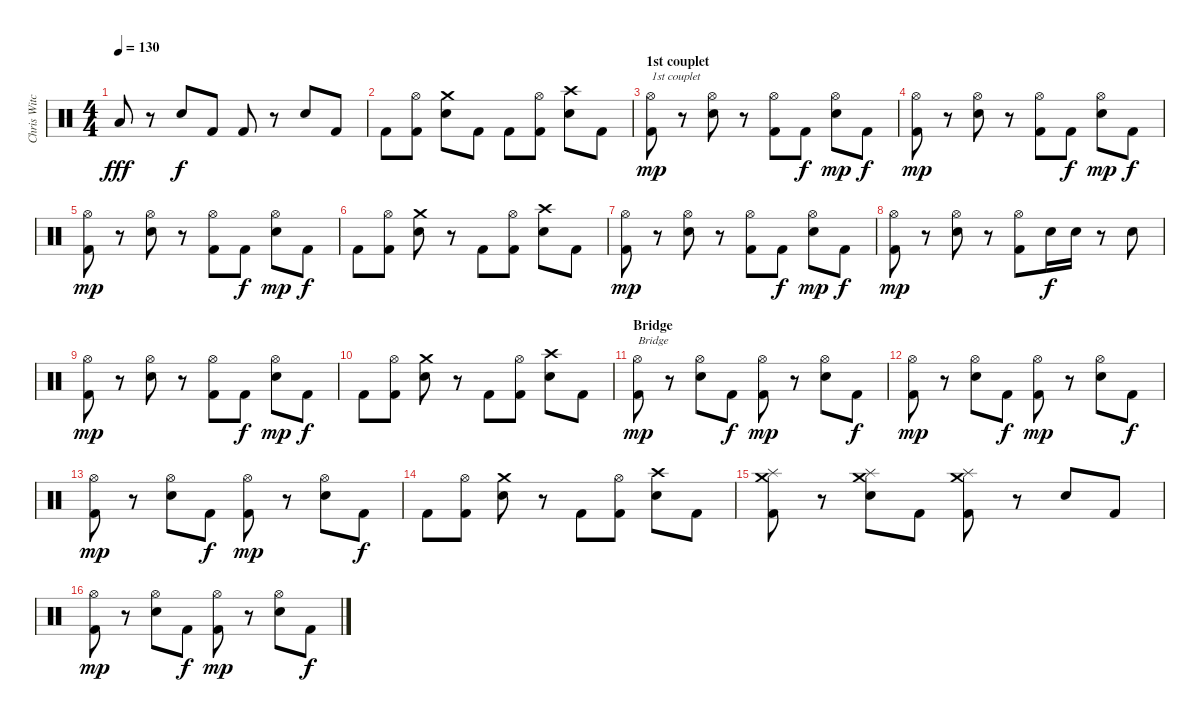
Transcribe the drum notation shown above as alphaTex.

\track ("Chris Witchhunter" "Chris Witc") {instrument percussion}
\staff {score}
\articulation defaults
\ts (4 4)
\tempo 130
\clef neutral
\ks c "Low Tom (hit)".8{dy fff}
r.8 "Electric Snare (hit)".8{dy f} "Kick (hit) 2".8 "Kick (hit) 2".8 r.8 "Electric Snare (hit)".8 "Kick (hit) 2".8 |
"Kick (hit) 2".8 ("Hi-Hat (open)" "Kick (hit) 2").8 ("Crash medium (hit)" "Electric Snare (hit)").8 "Kick (hit) 2".8 "Kick (hit) 2".8 ("Hi-Hat (open)" "Kick (hit) 2").8 ("Crash high (hit)" "Electric Snare (hit)").8 "Kick (hit) 2".8 |
\section ("" "1st couplet")
("Hi-Hat (open)" "Kick (hit) 2").8{txt "1st couplet" dy mp} r.8 ("Hi-Hat (open)" "Electric Snare (hit)").8 r.8 ("Hi-Hat (open)" "Kick (hit) 2").8 "Kick (hit) 2".8{dy f} ("Hi-Hat (open)" "Electric Snare (hit)").8{dy mp} "Kick (hit) 2".8{dy f} |
("Hi-Hat (open)" "Kick (hit) 2").8{dy mp} r.8 ("Hi-Hat (open)" "Electric Snare (hit)").8 r.8 ("Hi-Hat (open)" "Kick (hit) 2").8 "Kick (hit) 2".8{dy f} ("Hi-Hat (open)" "Electric Snare (hit)").8{dy mp} "Kick (hit) 2".8{dy f} |
("Hi-Hat (open)" "Kick (hit) 2").8{dy mp} r.8 ("Hi-Hat (open)" "Electric Snare (hit)").8 r.8 ("Hi-Hat (open)" "Kick (hit) 2").8 "Kick (hit) 2".8{dy f} ("Hi-Hat (open)" "Electric Snare (hit)").8{dy mp} "Kick (hit) 2".8{dy f} |
"Kick (hit) 2".8 ("Hi-Hat (open)" "Kick (hit) 2").8 ("Crash medium (hit)" "Electric Snare (hit)").8 r.8 "Kick (hit) 2".8 ("Hi-Hat (open)" "Kick (hit) 2").8 ("Crash high (hit)" "Electric Snare (hit)").8 "Kick (hit) 2".8 |
("Hi-Hat (open)" "Kick (hit) 2").8{dy mp} r.8 ("Hi-Hat (open)" "Electric Snare (hit)").8 r.8 ("Hi-Hat (open)" "Kick (hit) 2").8 "Kick (hit) 2".8{dy f} ("Hi-Hat (open)" "Electric Snare (hit)").8{dy mp} "Kick (hit) 2".8{dy f} |
("Hi-Hat (open)" "Kick (hit) 2").8{dy mp} r.8 ("Hi-Hat (open)" "Electric Snare (hit)").8 r.8 ("Hi-Hat (open)" "Kick (hit) 2").8 "Electric Snare (hit)".16{dy f} "Electric Snare (hit)".16 r.8 "Electric Snare (hit)".8 |
("Hi-Hat (open)" "Kick (hit) 2").8{dy mp} r.8 ("Hi-Hat (open)" "Electric Snare (hit)").8 r.8 ("Hi-Hat (open)" "Kick (hit) 2").8 "Kick (hit) 2".8{dy f} ("Hi-Hat (open)" "Electric Snare (hit)").8{dy mp} "Kick (hit) 2".8{dy f} |
"Kick (hit) 2".8 ("Hi-Hat (open)" "Kick (hit) 2").8 ("Crash medium (hit)" "Electric Snare (hit)").8 r.8 "Kick (hit) 2".8 ("Hi-Hat (open)" "Kick (hit) 2").8 ("Crash high (hit)" "Electric Snare (hit)").8 "Kick (hit) 2".8 |
\section ("" "Bridge")
("Hi-Hat (open)" "Kick (hit) 2").8{txt "Bridge" dy mp} r.8 ("Hi-Hat (open)" "Electric Snare (hit)").8 "Kick (hit) 2".8{dy f} ("Hi-Hat (open)" "Kick (hit) 2").8{dy mp} r.8 ("Hi-Hat (open)" "Electric Snare (hit)").8 "Kick (hit) 2".8{dy f} |
("Hi-Hat (open)" "Kick (hit) 2").8{dy mp} r.8 ("Hi-Hat (open)" "Electric Snare (hit)").8 "Kick (hit) 2".8{dy f} ("Hi-Hat (open)" "Kick (hit) 2").8{dy mp} r.8 ("Hi-Hat (open)" "Electric Snare (hit)").8 "Kick (hit) 2".8{dy f} |
("Hi-Hat (open)" "Kick (hit) 2").8{dy mp} r.8 ("Hi-Hat (open)" "Electric Snare (hit)").8 "Kick (hit) 2".8{dy f} ("Hi-Hat (open)" "Kick (hit) 2").8{dy mp} r.8 ("Hi-Hat (open)" "Electric Snare (hit)").8 "Kick (hit) 2".8{dy f} |
"Kick (hit) 2".8 ("Hi-Hat (open)" "Kick (hit) 2").8 ("Crash medium (hit)" "Electric Snare (hit)").8 r.8 "Kick (hit) 2".8 ("Hi-Hat (open)" "Kick (hit) 2").8 ("Crash high (hit)" "Electric Snare (hit)").8 "Kick (hit) 2".8 |
("Splash (hit)" "Crash medium (hit)" "Kick (hit) 2").8 r.8 ("Splash (hit)" "Crash medium (hit)" "Electric Snare (hit)").8 "Kick (hit) 2".8 ("Splash (hit)" "Crash medium (hit)" "Kick (hit) 2").8 r.8 "Electric Snare (hit)".8 "Kick (hit) 2".8 |
("Hi-Hat (open)" "Kick (hit) 2").8{dy mp} r.8 ("Hi-Hat (open)" "Electric Snare (hit)").8 "Kick (hit) 2".8{dy f} ("Hi-Hat (open)" "Kick (hit) 2").8{dy mp} r.8 ("Hi-Hat (open)" "Electric Snare (hit)").8 "Kick (hit) 2".8{dy f}
